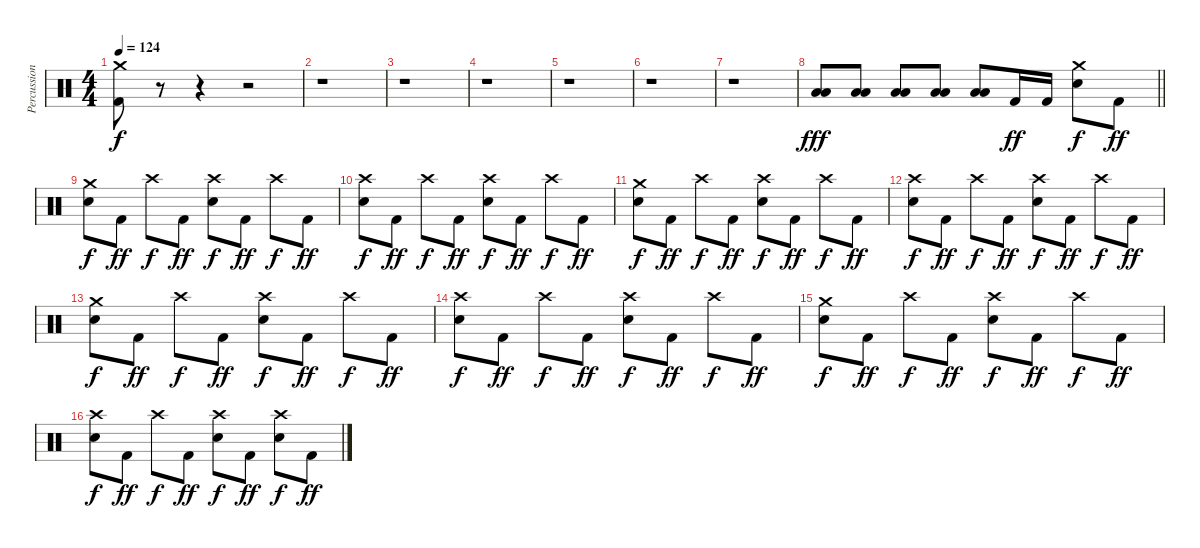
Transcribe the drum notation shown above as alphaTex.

\track ("Percussion" "Percussion") {instrument percussion}
\staff {score}
\articulation defaults
\ts (4 4)
\tempo 124
\clef neutral
\ks c
("Crash medium (hit)" "Kick (hit) 2").8{dy f} r.8{volume 0} r.4 r.2 |
r.1 |
r.1 |
r.1 |
r.1{volume 16} |
r.1 |
r.1 |
\barLineRight lightlight
("Low Tom (hit)" "Low Floor Tom (hit)").8{dy fff} ("Low Tom (hit)" "Low Floor Tom (hit)").8 ("Low Tom (hit)" "Low Floor Tom (hit)").8 ("Low Tom (hit)" "Low Floor Tom (hit)").8 ("Low Tom (hit)" "Low Floor Tom (hit)").8 "Kick (hit) 2".16{dy ff} "Kick (hit) 2".16 ("Crash medium (hit)" "Electric Snare (hit)").8{dy f} "Kick (hit) 2".8{dy ff} |
("Crash medium (hit)" "Electric Snare (hit)").8{dy f} "Kick (hit) 2".8{dy ff} "Crash high (hit)".8{dy f} "Kick (hit) 2".8{dy ff} ("Crash high (hit)" "Electric Snare (hit)").8{dy f} "Kick (hit) 2".8{dy ff} "Crash high (hit)".8{dy f} "Kick (hit) 2".8{dy ff} |
("Crash high (hit)" "Electric Snare (hit)").8{dy f} "Kick (hit) 2".8{dy ff} "Crash high (hit)".8{dy f} "Kick (hit) 2".8{dy ff} ("Crash high (hit)" "Electric Snare (hit)").8{dy f} "Kick (hit) 2".8{dy ff} "Crash high (hit)".8{dy f} "Kick (hit) 2".8{dy ff} |
("Crash medium (hit)" "Electric Snare (hit)").8{dy f} "Kick (hit) 2".8{dy ff} "Crash high (hit)".8{dy f} "Kick (hit) 2".8{dy ff} ("Crash high (hit)" "Electric Snare (hit)").8{dy f} "Kick (hit) 2".8{dy ff} "Crash high (hit)".8{dy f} "Kick (hit) 2".8{dy ff} |
("Crash high (hit)" "Electric Snare (hit)").8{dy f} "Kick (hit) 2".8{dy ff} "Crash high (hit)".8{dy f} "Kick (hit) 2".8{dy ff} ("Crash high (hit)" "Electric Snare (hit)").8{dy f} "Kick (hit) 2".8{dy ff} "Crash high (hit)".8{dy f} "Kick (hit) 2".8{dy ff} |
("Crash medium (hit)" "Electric Snare (hit)").8{dy f} "Kick (hit) 2".8{dy ff} "Crash high (hit)".8{dy f} "Kick (hit) 2".8{dy ff} ("Crash high (hit)" "Electric Snare (hit)").8{dy f} "Kick (hit) 2".8{dy ff} "Crash high (hit)".8{dy f} "Kick (hit) 2".8{dy ff} |
("Crash high (hit)" "Electric Snare (hit)").8{dy f} "Kick (hit) 2".8{dy ff} "Crash high (hit)".8{dy f} "Kick (hit) 2".8{dy ff} ("Crash high (hit)" "Electric Snare (hit)").8{dy f} "Kick (hit) 2".8{dy ff} "Crash high (hit)".8{dy f} "Kick (hit) 2".8{dy ff} |
("Crash medium (hit)" "Electric Snare (hit)").8{dy f} "Kick (hit) 2".8{dy ff} "Crash high (hit)".8{dy f} "Kick (hit) 2".8{dy ff} ("Crash high (hit)" "Electric Snare (hit)").8{dy f} "Kick (hit) 2".8{dy ff} "Crash high (hit)".8{dy f} "Kick (hit) 2".8{dy ff} |
("Crash high (hit)" "Electric Snare (hit)").8{dy f} "Kick (hit) 2".8{dy ff} "Crash high (hit)".8{dy f} "Kick (hit) 2".8{dy ff} ("Crash high (hit)" "Electric Snare (hit)").8{dy f} "Kick (hit) 2".8{dy ff} ("Crash high (hit)" "Electric Snare (hit)").8{dy f} "Kick (hit) 2".8{dy ff}
